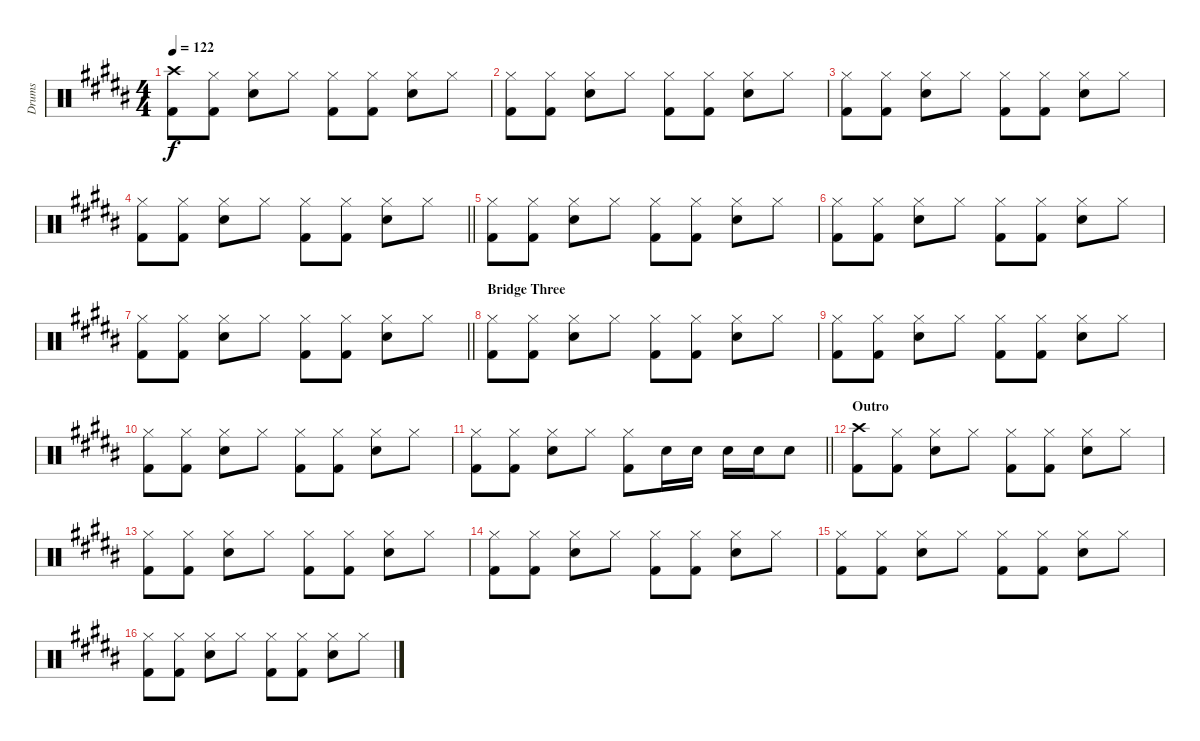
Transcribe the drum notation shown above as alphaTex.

\track ("Drums" "Drums") {instrument percussion}
\staff {score}
\articulation defaults
\ts (4 4)
\tempo 122
\clef neutral
\ks b
("Crash high (hit)" "Kick (hit) 2").8{dy f} ("Hi-Hat (closed)" "Kick (hit) 2").8 ("Hi-Hat (closed)" "Snare (hit) 2").8 "Hi-Hat (closed)".8 ("Hi-Hat (closed)" "Kick (hit) 2").8 ("Hi-Hat (closed)" "Kick (hit) 2").8 ("Hi-Hat (closed)" "Snare (hit) 2").8 "Hi-Hat (closed)".8 |
("Hi-Hat (closed)" "Kick (hit) 2").8 ("Hi-Hat (closed)" "Kick (hit) 2").8 ("Hi-Hat (closed)" "Snare (hit) 2").8 "Hi-Hat (closed)".8 ("Hi-Hat (closed)" "Kick (hit) 2").8 ("Hi-Hat (closed)" "Kick (hit) 2").8 ("Hi-Hat (closed)" "Snare (hit) 2").8 "Hi-Hat (closed)".8 |
("Hi-Hat (closed)" "Kick (hit) 2").8 ("Hi-Hat (closed)" "Kick (hit) 2").8 ("Hi-Hat (closed)" "Snare (hit) 2").8 "Hi-Hat (closed)".8 ("Hi-Hat (closed)" "Kick (hit) 2").8 ("Hi-Hat (closed)" "Kick (hit) 2").8 ("Hi-Hat (closed)" "Snare (hit) 2").8 "Hi-Hat (closed)".8 |
\barLineRight lightlight
("Hi-Hat (closed)" "Kick (hit) 2").8 ("Hi-Hat (closed)" "Kick (hit) 2").8 ("Hi-Hat (closed)" "Snare (hit) 2").8 "Hi-Hat (closed)".8 ("Hi-Hat (closed)" "Kick (hit) 2").8 ("Hi-Hat (closed)" "Kick (hit) 2").8 ("Hi-Hat (closed)" "Snare (hit) 2").8 "Hi-Hat (closed)".8 |
("Hi-Hat (closed)" "Kick (hit) 2").8 ("Hi-Hat (closed)" "Kick (hit) 2").8 ("Hi-Hat (closed)" "Snare (hit) 2").8 "Hi-Hat (closed)".8 ("Hi-Hat (closed)" "Kick (hit) 2").8 ("Hi-Hat (closed)" "Kick (hit) 2").8 ("Hi-Hat (closed)" "Snare (hit) 2").8 "Hi-Hat (closed)".8 |
("Hi-Hat (closed)" "Kick (hit) 2").8 ("Hi-Hat (closed)" "Kick (hit) 2").8 ("Hi-Hat (closed)" "Snare (hit) 2").8 "Hi-Hat (closed)".8 ("Hi-Hat (closed)" "Kick (hit) 2").8 ("Hi-Hat (closed)" "Kick (hit) 2").8 ("Hi-Hat (closed)" "Snare (hit) 2").8 "Hi-Hat (closed)".8 |
\barLineRight lightlight
("Hi-Hat (closed)" "Kick (hit) 2").8 ("Hi-Hat (closed)" "Kick (hit) 2").8 ("Hi-Hat (closed)" "Snare (hit) 2").8 "Hi-Hat (closed)".8 ("Hi-Hat (closed)" "Kick (hit) 2").8 ("Hi-Hat (closed)" "Kick (hit) 2").8 ("Hi-Hat (closed)" "Snare (hit) 2").8 "Hi-Hat (closed)".8 |
\section ("" "Bridge Three")
("Hi-Hat (closed)" "Kick (hit) 2").8 ("Hi-Hat (closed)" "Kick (hit) 2").8 ("Hi-Hat (closed)" "Snare (hit) 2").8 "Hi-Hat (closed)".8 ("Hi-Hat (closed)" "Kick (hit) 2").8 ("Hi-Hat (closed)" "Kick (hit) 2").8 ("Hi-Hat (closed)" "Snare (hit) 2").8 "Hi-Hat (closed)".8 |
("Hi-Hat (closed)" "Kick (hit) 2").8 ("Hi-Hat (closed)" "Kick (hit) 2").8 ("Hi-Hat (closed)" "Snare (hit) 2").8 "Hi-Hat (closed)".8 ("Hi-Hat (closed)" "Kick (hit) 2").8 ("Hi-Hat (closed)" "Kick (hit) 2").8 ("Hi-Hat (closed)" "Snare (hit) 2").8 "Hi-Hat (closed)".8 |
("Hi-Hat (closed)" "Kick (hit) 2").8 ("Hi-Hat (closed)" "Kick (hit) 2").8 ("Hi-Hat (closed)" "Snare (hit) 2").8 "Hi-Hat (closed)".8 ("Hi-Hat (closed)" "Kick (hit) 2").8 ("Hi-Hat (closed)" "Kick (hit) 2").8 ("Hi-Hat (closed)" "Snare (hit) 2").8 "Hi-Hat (closed)".8 |
\barLineRight lightlight
("Hi-Hat (closed)" "Kick (hit) 2").8 ("Hi-Hat (closed)" "Kick (hit) 2").8 ("Hi-Hat (closed)" "Snare (hit) 2").8 "Hi-Hat (closed)".8 ("Hi-Hat (closed)" "Kick (hit) 2").8 "Snare (hit) 2".16 "Snare (hit) 2".16 "Snare (hit) 2".16 "Snare (hit) 2".16 "Snare (hit) 2".8 |
\section ("" "Outro")
("Crash high (hit)" "Kick (hit) 2").8 ("Hi-Hat (closed)" "Kick (hit) 2").8 ("Hi-Hat (closed)" "Snare (hit) 2").8 "Hi-Hat (closed)".8 ("Hi-Hat (closed)" "Kick (hit) 2").8 ("Hi-Hat (closed)" "Kick (hit) 2").8 ("Hi-Hat (closed)" "Snare (hit) 2").8 "Hi-Hat (closed)".8 |
("Hi-Hat (closed)" "Kick (hit) 2").8 ("Hi-Hat (closed)" "Kick (hit) 2").8 ("Hi-Hat (closed)" "Snare (hit) 2").8 "Hi-Hat (closed)".8 ("Hi-Hat (closed)" "Kick (hit) 2").8 ("Hi-Hat (closed)" "Kick (hit) 2").8 ("Hi-Hat (closed)" "Snare (hit) 2").8 "Hi-Hat (closed)".8 |
("Hi-Hat (closed)" "Kick (hit) 2").8 ("Hi-Hat (closed)" "Kick (hit) 2").8 ("Hi-Hat (closed)" "Snare (hit) 2").8 "Hi-Hat (closed)".8 ("Hi-Hat (closed)" "Kick (hit) 2").8 ("Hi-Hat (closed)" "Kick (hit) 2").8 ("Hi-Hat (closed)" "Snare (hit) 2").8 "Hi-Hat (closed)".8 |
("Hi-Hat (closed)" "Kick (hit) 2").8 ("Hi-Hat (closed)" "Kick (hit) 2").8 ("Hi-Hat (closed)" "Snare (hit) 2").8 "Hi-Hat (closed)".8 ("Hi-Hat (closed)" "Kick (hit) 2").8 ("Hi-Hat (closed)" "Kick (hit) 2").8 ("Hi-Hat (closed)" "Snare (hit) 2").8 "Hi-Hat (closed)".8 |
("Hi-Hat (closed)" "Kick (hit) 2").8 ("Hi-Hat (closed)" "Kick (hit) 2").8 ("Hi-Hat (closed)" "Snare (hit) 2").8 "Hi-Hat (closed)".8 ("Hi-Hat (closed)" "Kick (hit) 2").8 ("Hi-Hat (closed)" "Kick (hit) 2").8 ("Hi-Hat (closed)" "Snare (hit) 2").8 "Hi-Hat (closed)".8
